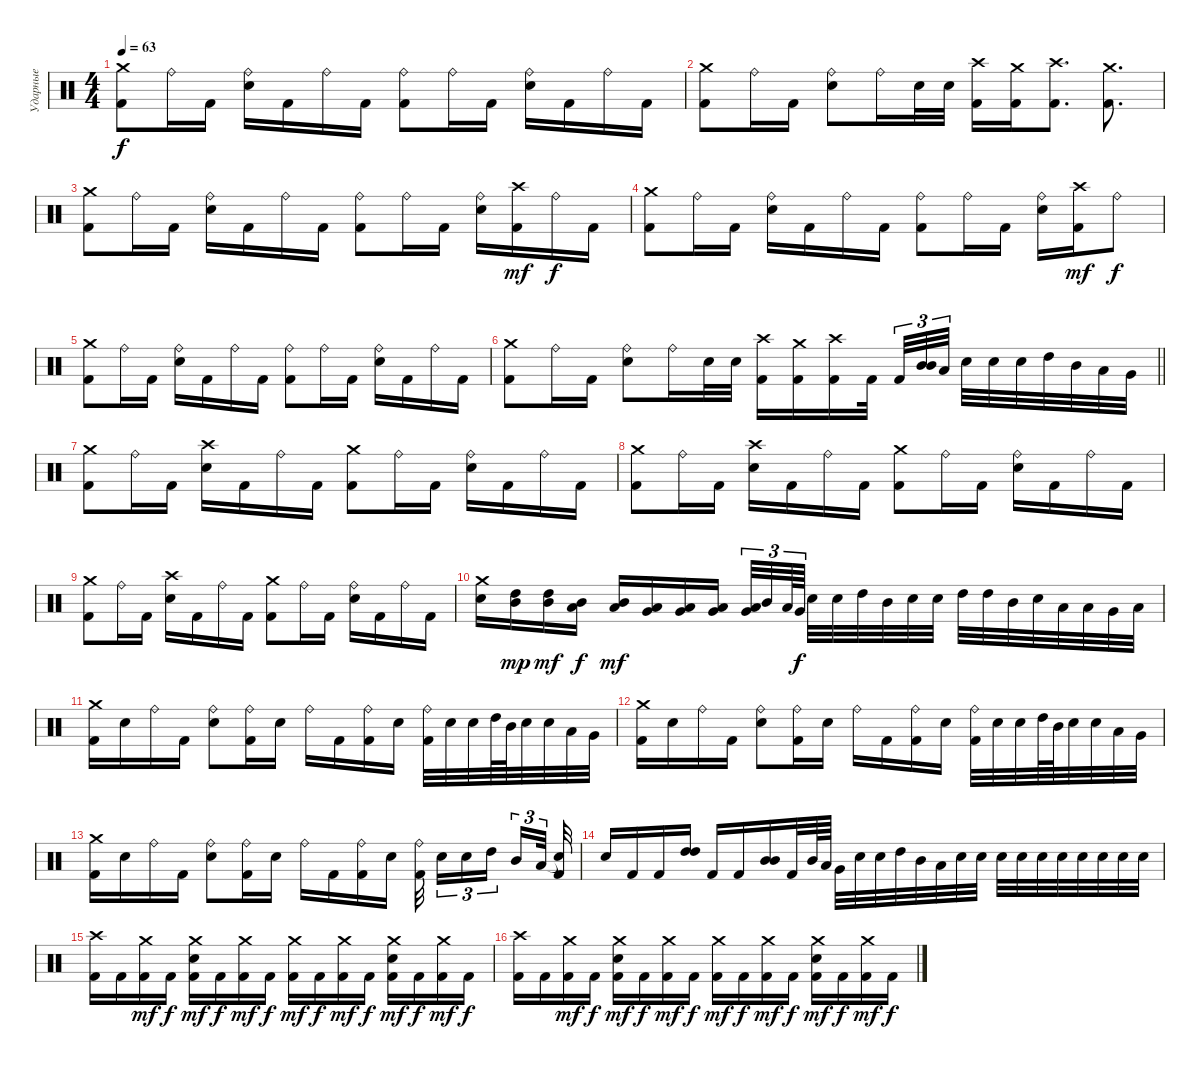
\track ("Ударные" "Ударные") {instrument percussion}
\staff {score}
\articulation defaults
\ts (4 4)
\tempo 63
\clef neutral
\ks c
("Crash medium (hit)" "Kick (hit) 2").8{dy f} "Ride (bell)".16 "Kick (hit) 2".16 ("Ride (bell)" "Snare (hit) 2").16 "Kick (hit) 2".16 "Ride (bell)".16 "Kick (hit) 2".16 ("Ride (bell)" "Kick (hit) 2").8 "Ride (bell)".16 "Kick (hit) 2".16 ("Ride (bell)" "Snare (hit) 2").16 "Kick (hit) 2".16 "Ride (bell)".16 "Kick (hit) 2".16 |
("Crash medium (hit)" "Kick (hit) 2").8 "Ride (bell)".16 "Kick (hit) 2".16 ("Ride (bell)" "Snare (hit) 2").8 "Ride (bell)".16 "Snare (hit) 2".32 "Snare (hit) 2".32 ("Crash high (hit)" "Kick (hit) 2").16 ("Crash medium (hit)" "Kick (hit) 2").16 ("Crash high (hit)" "Kick (hit) 2").8{d} ("Crash medium (hit)" "Kick (hit) 2").8{d} |
("Crash medium (hit)" "Kick (hit) 2").8 "Ride (bell)".16 "Kick (hit) 2".16 ("Ride (bell)" "Snare (hit) 2").16 "Kick (hit) 2".16 "Ride (bell)".16 "Kick (hit) 2".16 ("Ride (bell)" "Kick (hit) 2").8 "Ride (bell)".16 "Kick (hit) 2".16 ("Ride (bell)" "Snare (hit) 2").16 ("Crash high (hit)" "Kick (hit) 2").16{dy mf} "Ride (bell)".16{dy f} "Kick (hit) 2".16 |
("Crash medium (hit)" "Kick (hit) 2").8 "Ride (bell)".16 "Kick (hit) 2".16 ("Ride (bell)" "Snare (hit) 2").16 "Kick (hit) 2".16 "Ride (bell)".16 "Kick (hit) 2".16 ("Ride (bell)" "Kick (hit) 2").8 "Ride (bell)".16 "Kick (hit) 2".16 ("Ride (bell)" "Snare (hit) 2").16 ("Crash high (hit)" "Kick (hit) 2").16{dy mf} "Ride (bell)".8{dy f} |
("Crash medium (hit)" "Kick (hit) 2").8 "Ride (bell)".16 "Kick (hit) 2".16 ("Ride (bell)" "Snare (hit) 2").16 "Kick (hit) 2".16 "Ride (bell)".16 "Kick (hit) 2".16 ("Ride (bell)" "Kick (hit) 2").8 "Ride (bell)".16 "Kick (hit) 2".16 ("Ride (bell)" "Snare (hit) 2").16 "Kick (hit) 2".16 "Ride (bell)".16 "Kick (hit) 2".16 |
\barLineRight lightlight
("Crash medium (hit)" "Kick (hit) 2").8 "Ride (bell)".16 "Kick (hit) 2".16 ("Ride (bell)" "Snare (hit) 2").8 "Ride (bell)".16 "Snare (hit) 2".32 "Snare (hit) 2".32 ("Crash high (hit)" "Kick (hit) 2").16 ("Crash medium (hit)" "Kick (hit) 2").16 ("Crash high (hit)" "Kick (hit) 2").16 "Kick (hit) 2".32{beam splitsecondary} "Kick (hit) 2".32{tu (3 2)} ("Mid Tom (hit)" "Mid Tom (hit)").32{tu (3 2) bd 60} "Low Tom (hit)".32{tu (3 2) beam splitsecondary} "Snare (hit) 2".32 "Snare (hit) 2".32 "Snare (hit) 2".32 "High Tom (hit)".32 "Mid Tom (hit)".32 "Low Tom (hit)".32 "Very Low Tom (hit)".32 |
("Crash medium (hit)" "Kick (hit) 2").8 "Ride (bell)".16 "Kick (hit) 2".16 ("Crash high (hit)" "Snare (hit) 2").16 "Kick (hit) 2".16 "Ride (bell)".16 "Kick (hit) 2".16 ("Crash medium (hit)" "Kick (hit) 2").8 "Ride (bell)".16 "Kick (hit) 2".16 ("Ride (bell)" "Snare (hit) 2").16 "Kick (hit) 2".16 "Ride (bell)".16 "Kick (hit) 2".16 |
("Crash medium (hit)" "Kick (hit) 2").8 "Ride (bell)".16 "Kick (hit) 2".16 ("Crash high (hit)" "Snare (hit) 2").16 "Kick (hit) 2".16 "Ride (bell)".16 "Kick (hit) 2".16 ("Crash medium (hit)" "Kick (hit) 2").8 "Ride (bell)".16 "Kick (hit) 2".16 ("Ride (bell)" "Snare (hit) 2").16 "Kick (hit) 2".16 "Ride (bell)".16 "Kick (hit) 2".16 |
("Crash medium (hit)" "Kick (hit) 2").8 "Ride (bell)".16 "Kick (hit) 2".16 ("Crash high (hit)" "Snare (hit) 2").16 "Kick (hit) 2".16 "Ride (bell)".16 "Kick (hit) 2".16 ("Crash medium (hit)" "Kick (hit) 2").8 "Ride (bell)".16 "Kick (hit) 2".16 ("Ride (bell)" "Snare (hit) 2").16 "Kick (hit) 2".16 "Ride (bell)".16 "Kick (hit) 2".16 |
("Crash medium (hit)" "Snare (hit) 2").16 ("High Tom (hit)" "Mid Tom (hit)").16{dy mp} ("High Tom (hit)" "Mid Tom (hit)").16{dy mf} ("Mid Tom (hit)" "Low Tom (hit)").16{dy f} ("Mid Tom (hit)" "Low Tom (hit)").16{dy mf} ("Low Tom (hit)" "Very Low Tom (hit)").16 ("Low Tom (hit)" "Very Low Tom (hit)").16 ("Very Low Tom (hit)" "Low Floor Tom (hit)").16 ("Very Low Tom (hit)" "Low Floor Tom (hit)").32{tu (3 2)} "Mid Tom (hit)".32{tu (3 2)} "Low Tom (hit)".64{tu (3 2)} "Very Low Tom (hit)".64{tu (3 2) dy f beam splitsecondary} "Snare (hit) 2".32 "Snare (hit) 2".32 "High Tom (hit)".32 "Mid Tom (hit)".32 "Snare (hit) 2".32 "Snare (hit) 2".32 "High Tom (hit)".32 "High Tom (hit)".32 "Mid Tom (hit)".32 "Snare (hit) 2".32 "Low Tom (hit)".32 "Low Tom (hit)".32 "Very Low Tom (hit)".32 "Low Floor Tom (hit)".32 |
("Crash medium (hit)" "Kick (hit) 2").16 "Snare (hit) 2".16 "Ride (bell)".16 "Kick (hit) 2".16 ("Ride (bell)" "Snare (hit) 2").8 ("Ride (bell)" "Kick (hit) 2").16 "Snare (hit) 2".16 "Ride (bell)".16 "Kick (hit) 2".16 ("Ride (bell)" "Kick (hit) 2").16 "Snare (hit) 2".16 ("Ride (bell)" "Kick (hit) 2").32 "Snare (hit) 2".32 "Snare (hit) 2".32 "High Tom (hit)".64 "Mid Tom (hit)".64 "Snare (hit) 2".32 "Snare (hit) 2".32 "Low Tom (hit)".32 "Very Low Tom (hit)".32 |
("Crash medium (hit)" "Kick (hit) 2").16 "Snare (hit) 2".16 "Ride (bell)".16 "Kick (hit) 2".16 ("Ride (bell)" "Snare (hit) 2").8 ("Ride (bell)" "Kick (hit) 2").16 "Snare (hit) 2".16 "Ride (bell)".16 "Kick (hit) 2".16 ("Ride (bell)" "Kick (hit) 2").16 "Snare (hit) 2".16 ("Ride (bell)" "Kick (hit) 2").32 "Snare (hit) 2".32 "Snare (hit) 2".32 "High Tom (hit)".64 "Mid Tom (hit)".64 "Snare (hit) 2".32 "Snare (hit) 2".32 "Low Tom (hit)".32 "Very Low Tom (hit)".32 |
("Crash medium (hit)" "Kick (hit) 2").16 "Snare (hit) 2".16 "Ride (bell)".16 "Kick (hit) 2".16 ("Ride (bell)" "Snare (hit) 2").8 ("Ride (bell)" "Kick (hit) 2").16 "Snare (hit) 2".16 "Ride (bell)".16 "Kick (hit) 2".16 ("Ride (bell)" "Kick (hit) 2").16 "Snare (hit) 2".16 ("Ride (bell)" "Kick (hit) 2").32{beam splitsecondary} "Snare (hit) 2".16{tu (3 2)} "Snare (hit) 2".16{tu (3 2)} "High Tom (hit)".16{tu (3 2) beam splitsecondary} "Mid Tom (hit)".16{tu (3 2)} "Low Tom (hit)".32{tu (3 2)} ("Snare (hit) 2"{t} "Kick (hit) 2").32 |
"Snare (hit) 2".16 "Kick (hit) 2".16 "Kick (hit) 2".16 ("High Tom (hit)" "High Tom (hit)").16{bu 60} "Kick (hit) 2".16 "Kick (hit) 2".16 ("Mid Tom (hit)" "Mid Tom (hit)").16{bd 60} "Kick (hit) 2".32 "Mid Tom (hit)".64 "Low Tom (hit)".64 "Very Low Tom (hit)".32 "Snare (hit) 2".32 "Snare (hit) 2".32 "High Tom (hit)".32 "Mid Tom (hit)".32 "Low Tom (hit)".32 "Snare (hit) 2".32 "Snare (hit) 2".32 "Snare (hit) 2".32 "Snare (hit) 2".32 "Snare (hit) 2".32 "Snare (hit) 2".32 "Snare (hit) 2".32 "Snare (hit) 2".32 "Snare (hit) 2".32 "Snare (hit) 2".32 |
("Crash high (hit)" "Kick (hit) 2").16 "Kick (hit) 2".16 ("Crash medium (hit)" "Kick (hit) 2").16{dy mf} "Kick (hit) 2".16{dy f} ("Crash medium (hit)" "Snare (hit) 2" "Kick (hit) 2").16{dy mf} "Kick (hit) 2".16{dy f} ("Crash medium (hit)" "Kick (hit) 2").16{dy mf} "Kick (hit) 2".16{dy f} ("Crash medium (hit)" "Kick (hit) 2").16{dy mf} "Kick (hit) 2".16{dy f} ("Crash medium (hit)" "Kick (hit) 2").16{dy mf} "Kick (hit) 2".16{dy f} ("Crash medium (hit)" "Snare (hit) 2" "Kick (hit) 2").16{dy mf} "Kick (hit) 2".16{dy f} ("Crash medium (hit)" "Kick (hit) 2").16{dy mf} "Kick (hit) 2".16{dy f} |
("Crash high (hit)" "Kick (hit) 2").16 "Kick (hit) 2".16 ("Crash medium (hit)" "Kick (hit) 2").16{dy mf} "Kick (hit) 2".16{dy f} ("Crash medium (hit)" "Snare (hit) 2" "Kick (hit) 2").16{dy mf} "Kick (hit) 2".16{dy f} ("Crash medium (hit)" "Kick (hit) 2").16{dy mf} "Kick (hit) 2".16{dy f} ("Crash medium (hit)" "Kick (hit) 2").16{dy mf} "Kick (hit) 2".16{dy f} ("Crash medium (hit)" "Kick (hit) 2").16{dy mf} "Kick (hit) 2".16{dy f} ("Crash medium (hit)" "Snare (hit) 2" "Kick (hit) 2").16{dy mf} "Kick (hit) 2".16{dy f} ("Crash medium (hit)" "Kick (hit) 2").16{dy mf} "Kick (hit) 2".16{dy f}
